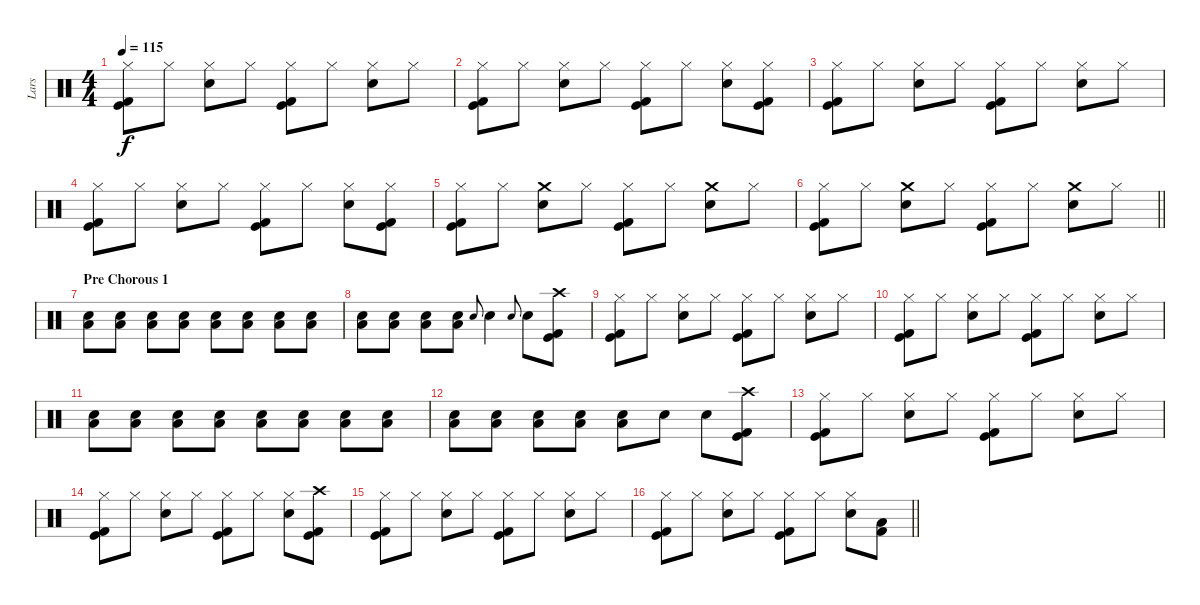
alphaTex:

\track ("Lars" "Lars") {instrument percussion}
\staff {score}
\articulation defaults
\ts (4 4)
\tempo 115
\clef neutral
\ks c
("Hi-Hat (closed)" "Kick (hit)" "Kick (hit) 2").8{dy f} "Hi-Hat (closed)".8 ("Hi-Hat (closed)" "Electric Snare (hit)").8 "Hi-Hat (closed)".8 ("Hi-Hat (closed)" "Kick (hit)" "Kick (hit) 2").8 "Hi-Hat (closed)".8 ("Hi-Hat (closed)" "Electric Snare (hit)").8 "Hi-Hat (closed)".8 |
("Hi-Hat (closed)" "Kick (hit)" "Kick (hit) 2").8 "Hi-Hat (closed)".8 ("Hi-Hat (closed)" "Electric Snare (hit)").8 "Hi-Hat (closed)".8 ("Hi-Hat (closed)" "Kick (hit)" "Kick (hit) 2").8 "Hi-Hat (closed)".8 ("Hi-Hat (closed)" "Electric Snare (hit)").8 ("Hi-Hat (closed)" "Kick (hit)" "Kick (hit) 2").8 |
("Hi-Hat (closed)" "Kick (hit)" "Kick (hit) 2").8 "Hi-Hat (closed)".8 ("Hi-Hat (closed)" "Electric Snare (hit)").8 "Hi-Hat (closed)".8 ("Hi-Hat (closed)" "Kick (hit)" "Kick (hit) 2").8 "Hi-Hat (closed)".8 ("Hi-Hat (closed)" "Electric Snare (hit)").8 "Hi-Hat (closed)".8 |
("Hi-Hat (closed)" "Kick (hit)" "Kick (hit) 2").8 "Hi-Hat (closed)".8 ("Hi-Hat (closed)" "Electric Snare (hit)").8 "Hi-Hat (closed)".8 ("Hi-Hat (closed)" "Kick (hit)" "Kick (hit) 2").8 "Hi-Hat (closed)".8 ("Hi-Hat (closed)" "Electric Snare (hit)").8 ("Hi-Hat (closed)" "Kick (hit)" "Kick (hit) 2").8 |
("Hi-Hat (closed)" "Kick (hit)" "Kick (hit) 2").8 "Hi-Hat (closed)".8 ("Crash medium (hit)" "Electric Snare (hit)").8 "Hi-Hat (closed)".8 ("Hi-Hat (closed)" "Kick (hit)" "Kick (hit) 2").8 "Hi-Hat (closed)".8 ("Crash medium (hit)" "Electric Snare (hit)").8 "Hi-Hat (closed)".8 |
\barLineRight lightlight
("Hi-Hat (closed)" "Kick (hit)" "Kick (hit) 2").8 "Hi-Hat (closed)".8 ("Crash medium (hit)" "Electric Snare (hit)").8 "Hi-Hat (closed)".8 ("Hi-Hat (closed)" "Kick (hit)" "Kick (hit) 2").8 "Hi-Hat (closed)".8 ("Crash medium (hit)" "Electric Snare (hit)").8 "Hi-Hat (closed)".8 |
\section ("" "Pre Chorous 1")
("Electric Snare (hit)" "Low Floor Tom (hit)").8 ("Electric Snare (hit)" "Low Floor Tom (hit)").8 ("Electric Snare (hit)" "Low Floor Tom (hit)").8 ("Electric Snare (hit)" "Low Floor Tom (hit)").8 ("Electric Snare (hit)" "Low Floor Tom (hit)").8 ("Electric Snare (hit)" "Low Floor Tom (hit)").8 ("Electric Snare (hit)" "Low Floor Tom (hit)").8 ("Electric Snare (hit)" "Low Floor Tom (hit)").8 |
("Electric Snare (hit)" "Low Floor Tom (hit)").8 ("Electric Snare (hit)" "Low Floor Tom (hit)").8 ("Electric Snare (hit)" "Low Floor Tom (hit)").8 ("Electric Snare (hit)" "Low Floor Tom (hit)").8 "Electric Snare (hit)".8{gr onbeat} "Electric Snare (hit)".4 "Electric Snare (hit)".8{gr onbeat} "Electric Snare (hit)".8 ("Crash high (hit)" "Kick (hit)" "Kick (hit) 2").8 |
("Hi-Hat (closed)" "Kick (hit)" "Kick (hit) 2").8 "Hi-Hat (closed)".8 ("Hi-Hat (closed)" "Electric Snare (hit)").8 "Hi-Hat (closed)".8 ("Hi-Hat (closed)" "Kick (hit)" "Kick (hit) 2").8 "Hi-Hat (closed)".8 ("Hi-Hat (closed)" "Electric Snare (hit)").8 "Hi-Hat (closed)".8 |
("Hi-Hat (closed)" "Kick (hit)" "Kick (hit) 2").8 "Hi-Hat (closed)".8 ("Hi-Hat (closed)" "Electric Snare (hit)").8 "Hi-Hat (closed)".8 ("Hi-Hat (closed)" "Kick (hit)" "Kick (hit) 2").8 "Hi-Hat (closed)".8 ("Hi-Hat (closed)" "Electric Snare (hit)").8 "Hi-Hat (closed)".8 |
("Electric Snare (hit)" "Low Floor Tom (hit)").8 ("Electric Snare (hit)" "Low Floor Tom (hit)").8 ("Electric Snare (hit)" "Low Floor Tom (hit)").8 ("Electric Snare (hit)" "Low Floor Tom (hit)").8 ("Electric Snare (hit)" "Low Floor Tom (hit)").8 ("Electric Snare (hit)" "Low Floor Tom (hit)").8 ("Electric Snare (hit)" "Low Floor Tom (hit)").8 ("Electric Snare (hit)" "Low Floor Tom (hit)").8 |
("Electric Snare (hit)" "Low Floor Tom (hit)").8 ("Electric Snare (hit)" "Low Floor Tom (hit)").8 ("Electric Snare (hit)" "Low Floor Tom (hit)").8 ("Electric Snare (hit)" "Low Floor Tom (hit)").8 ("Electric Snare (hit)" "Low Floor Tom (hit)").8 "Electric Snare (hit)".8 "Electric Snare (hit)".8 ("Crash high (hit)" "Kick (hit)" "Kick (hit) 2").8 |
("Hi-Hat (closed)" "Kick (hit)" "Kick (hit) 2").8 "Hi-Hat (closed)".8 ("Hi-Hat (closed)" "Electric Snare (hit)").8 "Hi-Hat (closed)".8 ("Hi-Hat (closed)" "Kick (hit)" "Kick (hit) 2").8 "Hi-Hat (closed)".8 ("Hi-Hat (closed)" "Electric Snare (hit)").8 "Hi-Hat (closed)".8 |
("Hi-Hat (closed)" "Kick (hit)" "Kick (hit) 2").8 "Hi-Hat (closed)".8 ("Hi-Hat (closed)" "Electric Snare (hit)").8 "Hi-Hat (closed)".8 ("Hi-Hat (closed)" "Kick (hit)" "Kick (hit) 2").8 "Hi-Hat (closed)".8 ("Hi-Hat (closed)" "Electric Snare (hit)").8 ("Crash high (hit)" "Kick (hit)" "Kick (hit) 2").8 |
("Hi-Hat (closed)" "Kick (hit)" "Kick (hit) 2").8 "Hi-Hat (closed)".8 ("Hi-Hat (closed)" "Electric Snare (hit)").8 "Hi-Hat (closed)".8 ("Hi-Hat (closed)" "Kick (hit)" "Kick (hit) 2").8 "Hi-Hat (closed)".8 ("Hi-Hat (closed)" "Electric Snare (hit)").8 "Hi-Hat (closed)".8 |
\barLineRight lightlight
("Hi-Hat (closed)" "Kick (hit)" "Kick (hit) 2").8 "Hi-Hat (closed)".8 ("Hi-Hat (closed)" "Electric Snare (hit)").8 "Hi-Hat (closed)".8 ("Hi-Hat (closed)" "Kick (hit)" "Kick (hit) 2").8 "Hi-Hat (closed)".8 ("Hi-Hat (closed)" "Electric Snare (hit)").8 ("Low Floor Tom (hit)" "Kick (hit) 2").8
